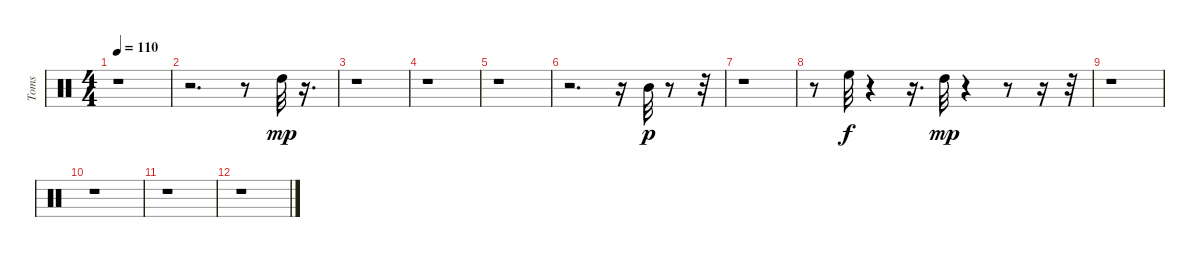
\track ("Toms" "Toms") {instrument percussion}
\staff {score}
\articulation defaults
\ts (4 4)
\tempo 110
\clef neutral
\ks c
r.1{dy mp} |
r.2{d} r.8 "High Tom (hit)".32 r.16{d} |
r.1 |
r.1 |
r.1 |
r.2{d} r.16 "Mid Tom (hit)".32{dy p} r.8 r.32 |
r.1 |
r.8 "High Floor Tom (hit)".32{dy f} r.4 r.16{d} "High Tom (hit)".32{dy mp} r.4 r.8 r.16 r.32 |
r.1 |
r.1 |
r.1 |
r.1
